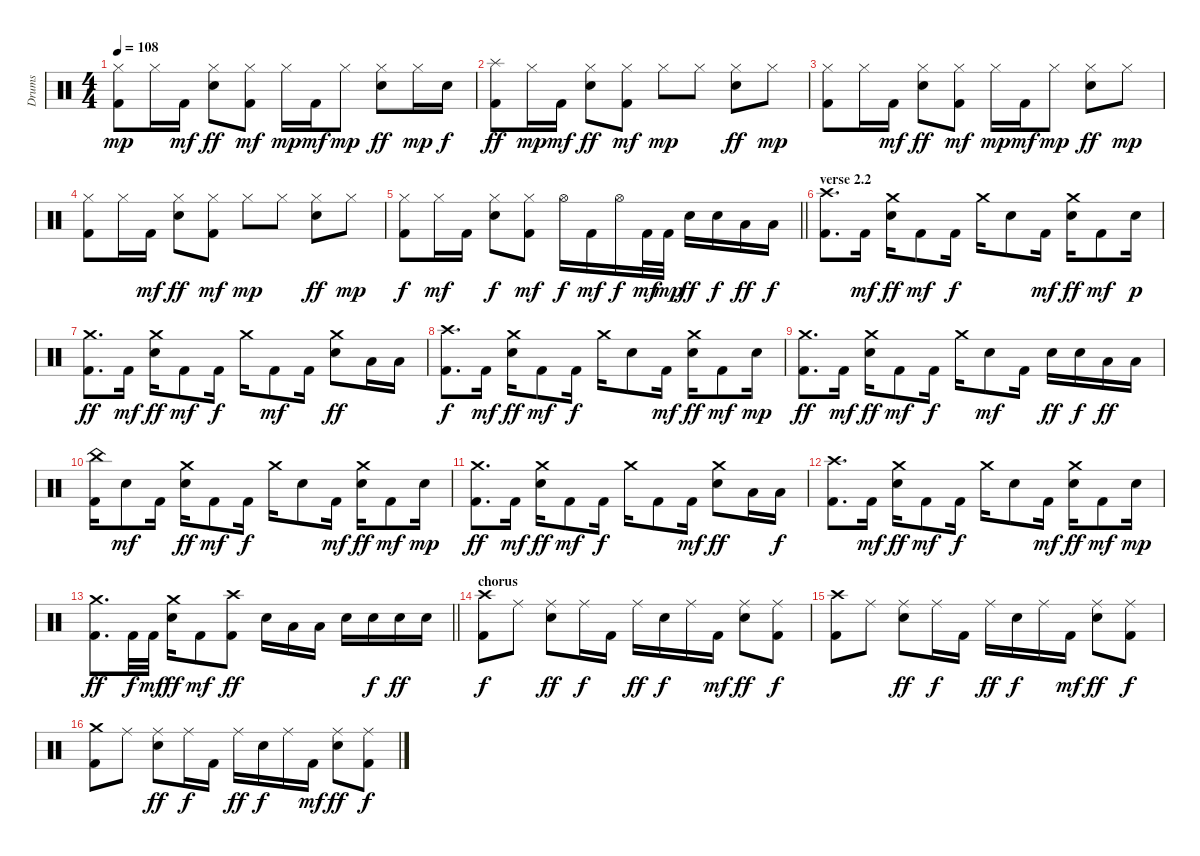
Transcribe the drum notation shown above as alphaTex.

\track ("Drums" "Drums") {instrument percussion}
\staff {score}
\articulation defaults
\ts (4 4)
\tempo 108
\clef neutral
\ks c
("Hi-Hat (closed)" "Kick (hit) 2").8{dy mp} "Hi-Hat (closed)".16 "Kick (hit) 2".16{dy mf} ("Hi-Hat (closed)" "Electric Snare (hit)").8{dy ff} ("Hi-Hat (closed)" "Kick (hit) 2").8{dy mf} "Hi-Hat (closed)".16{dy mp} "Kick (hit) 2".16{dy mf} "Hi-Hat (closed)".8{dy mp} ("Hi-Hat (closed)" "Electric Snare (hit)").8{dy ff} "Hi-Hat (closed)".16{dy mp} "Electric Snare (hit)".16{dy f} |
("Splash (hit)" "Kick (hit) 2").8{dy ff} "Hi-Hat (closed)".16{dy mp} "Kick (hit) 2".16{dy mf} ("Hi-Hat (closed)" "Electric Snare (hit)").8{dy ff} ("Hi-Hat (closed)" "Kick (hit) 2").8{dy mf} "Hi-Hat (closed)".8{dy mp} "Hi-Hat (closed)".8 ("Hi-Hat (closed)" "Electric Snare (hit)").8{dy ff} "Hi-Hat (closed)".8{dy mp} |
("Hi-Hat (closed)" "Kick (hit) 2").8 "Hi-Hat (closed)".16 "Kick (hit) 2".16{dy mf} ("Hi-Hat (closed)" "Electric Snare (hit)").8{dy ff} ("Hi-Hat (closed)" "Kick (hit) 2").8{dy mf} "Hi-Hat (closed)".16{dy mp} "Kick (hit) 2".16{dy mf} "Hi-Hat (closed)".8{dy mp} ("Hi-Hat (closed)" "Electric Snare (hit)").8{dy ff} "Hi-Hat (closed)".8{dy mp} |
("Hi-Hat (closed)" "Kick (hit) 2").8 "Hi-Hat (closed)".16 "Kick (hit) 2".16{dy mf} ("Hi-Hat (closed)" "Electric Snare (hit)").8{dy ff} ("Hi-Hat (closed)" "Kick (hit) 2").8{dy mf} "Hi-Hat (closed)".8{dy mp} "Hi-Hat (closed)".8 ("Hi-Hat (closed)" "Electric Snare (hit)").8{dy ff} "Hi-Hat (closed)".8{dy mp} |
\barLineRight lightlight
("Hi-Hat (closed)" "Kick (hit) 2").8{dy f} "Hi-Hat (closed)".16{dy mf} "Kick (hit) 2".16 ("Hi-Hat (closed)" "Electric Snare (hit)").8{dy f} ("Hi-Hat (closed)" "Kick (hit) 2").8{dy mf} "Hi-Hat (open)".16{dy f} "Kick (hit) 2".16{dy mf} "Hi-Hat (open)".16{dy f} "Kick (hit) 2".32{dy mf} "Kick (hit) 2".32{dy mp} "Electric Snare (hit)".16{dy ff} "Electric Snare (hit)".16{dy f} "Low Tom (hit)".16{dy ff} "Low Tom (hit)".16{dy f} |
\section ("" "verse 2.2")
("Crash high (hit)" "Kick (hit) 2").8{d} "Kick (hit) 2".16{dy mf} ("Crash medium (hit)" "Electric Snare (hit)").16{dy ff} "Kick (hit) 2".8{dy mf} "Kick (hit) 2".16{dy f} "Crash medium (hit)".16 "Electric Snare (hit)".8 "Kick (hit) 2".16{dy mf} ("Crash medium (hit)" "Electric Snare (hit)").16{dy ff} "Kick (hit) 2".8{dy mf} "Electric Snare (hit)".16{dy p} |
("Crash medium (hit)" "Kick (hit) 2").8{d dy ff} "Kick (hit) 2".16{dy mf} ("Crash medium (hit)" "Electric Snare (hit)").16{dy ff} "Kick (hit) 2".8{dy mf} "Kick (hit) 2".16{dy f} "Crash medium (hit)".16 "Kick (hit) 2".8{dy mf} "Kick (hit) 2".16 ("Crash medium (hit)" "Electric Snare (hit)").8{dy ff} "Low Tom (hit)".16 "Low Tom (hit)".16 |
("Crash high (hit)" "Kick (hit) 2").8{d dy f} "Kick (hit) 2".16{dy mf} ("Crash medium (hit)" "Electric Snare (hit)").16{dy ff} "Kick (hit) 2".8{dy mf} "Kick (hit) 2".16{dy f} "Crash medium (hit)".16 "Electric Snare (hit)".8 "Kick (hit) 2".16{dy mf} ("Crash medium (hit)" "Electric Snare (hit)").16{dy ff} "Kick (hit) 2".8{dy mf} "Electric Snare (hit)".16{dy mp} |
("Crash medium (hit)" "Kick (hit) 2").8{d dy ff} "Kick (hit) 2".16{dy mf} ("Crash medium (hit)" "Electric Snare (hit)").16{dy ff} "Kick (hit) 2".8{dy mf} "Kick (hit) 2".16{dy f} "Crash medium (hit)".16 "Electric Snare (hit)".8{dy mf} "Kick (hit) 2".16 "Electric Snare (hit)".16{dy ff} "Electric Snare (hit)".16{dy f} "Low Tom (hit)".16{dy ff} "Low Tom (hit)".16 |
("China (hit)" "Kick (hit) 2").16 "Electric Snare (hit)".8{dy mf} "Kick (hit) 2".16 ("Crash medium (hit)" "Electric Snare (hit)").16{dy ff} "Kick (hit) 2".8{dy mf} "Kick (hit) 2".16{dy f} "Crash medium (hit)".16 "Electric Snare (hit)".8 "Kick (hit) 2".16{dy mf} ("Crash medium (hit)" "Electric Snare (hit)").16{dy ff} "Kick (hit) 2".8{dy mf} "Electric Snare (hit)".16{dy mp} |
("Crash medium (hit)" "Kick (hit) 2").8{d dy ff} "Kick (hit) 2".16{dy mf} ("Crash medium (hit)" "Electric Snare (hit)").16{dy ff} "Kick (hit) 2".8{dy mf} "Kick (hit) 2".16{dy f} "Crash medium (hit)".16 "Kick (hit) 2".8 "Kick (hit) 2".16{dy mf} ("Crash medium (hit)" "Electric Snare (hit)").8{dy ff} "Low Tom (hit)".16 "Low Tom (hit)".16{dy f} |
("Crash high (hit)" "Kick (hit) 2").8{d} "Kick (hit) 2".16{dy mf} ("Crash medium (hit)" "Electric Snare (hit)").16{dy ff} "Kick (hit) 2".8{dy mf} "Kick (hit) 2".16{dy f} "Crash medium (hit)".16 "Electric Snare (hit)".8 "Kick (hit) 2".16{dy mf} ("Crash medium (hit)" "Electric Snare (hit)").16{dy ff} "Kick (hit) 2".8{dy mf} "Electric Snare (hit)".16{dy mp} |
\barLineRight lightlight
("Crash medium (hit)" "Kick (hit) 2").8{d dy ff} "Kick (hit) 2".32{dy f} "Kick (hit) 2".32{dy mf} ("Crash medium (hit)" "Electric Snare (hit)").16{dy ff} "Kick (hit) 2".8{dy mf} ("Crash high (hit)" "Kick (hit) 2").8{dy ff} "Electric Snare (hit)".16 "Low Tom (hit)".16 "Low Tom (hit)".16 "Electric Snare (hit)".16 "Electric Snare (hit)".16{dy f} "Electric Snare (hit)".16{dy ff} "Electric Snare (hit)".16 |
\section ("" "chorus")
("Crash high (hit)" "Kick (hit) 2").8{dy f} "Ride (middle)".8 ("Ride (middle)" "Electric Snare (hit)").8{dy ff} "Ride (middle)".16{dy f} "Kick (hit) 2".16 "Ride (middle)".16{dy ff} "Electric Snare (hit)".16{dy f} "Ride (middle)".16 "Kick (hit) 2".16{dy mf} ("Ride (middle)" "Electric Snare (hit)").8{dy ff} ("Ride (middle)" "Kick (hit) 2").8{dy f} |
("Crash high (hit)" "Kick (hit) 2").8 "Ride (middle)".8 ("Ride (middle)" "Electric Snare (hit)").8{dy ff} "Ride (middle)".16{dy f} "Kick (hit) 2".16 "Ride (middle)".16{dy ff} "Electric Snare (hit)".16{dy f} "Ride (middle)".16 "Kick (hit) 2".16{dy mf} ("Ride (middle)" "Electric Snare (hit)").8{dy ff} ("Ride (middle)" "Kick (hit) 2").8{dy f} |
("Crash medium (hit)" "Kick (hit) 2").8 "Ride (middle)".8 ("Ride (middle)" "Electric Snare (hit)").8{dy ff} "Ride (middle)".16{dy f} "Kick (hit) 2".16 "Ride (middle)".16{dy ff} "Electric Snare (hit)".16{dy f} "Ride (middle)".16 "Kick (hit) 2".16{dy mf} ("Ride (middle)" "Electric Snare (hit)").8{dy ff} ("Ride (middle)" "Kick (hit) 2").8{dy f}
